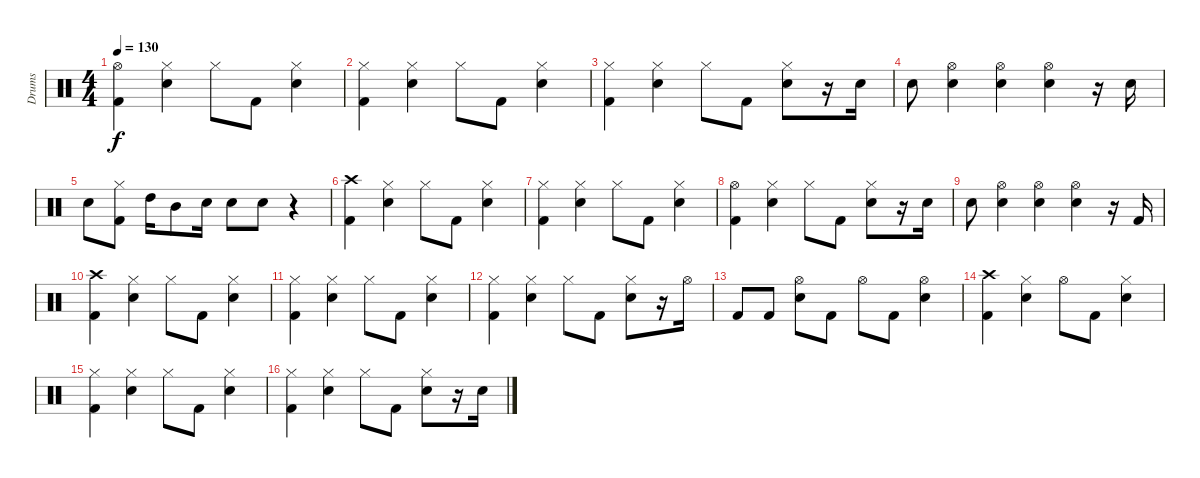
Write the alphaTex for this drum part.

\track ("Drums" "Drums") {instrument percussion}
\staff {score}
\articulation defaults
\ts (4 4)
\tempo 130
\clef neutral
\ks c
("Kick (hit) 2" "Hi-Hat (open)").4{dy f} ("Snare (hit) 2" "Hi-Hat (closed)").4 "Hi-Hat (closed)".8 "Kick (hit) 2".8 ("Snare (hit) 2" "Hi-Hat (closed)").4 |
("Kick (hit) 2" "Hi-Hat (closed)").4 ("Snare (hit) 2" "Hi-Hat (closed)").4 "Hi-Hat (closed)".8 "Kick (hit) 2".8 ("Snare (hit) 2" "Hi-Hat (closed)").4 |
("Kick (hit) 2" "Hi-Hat (closed)").4 ("Snare (hit) 2" "Hi-Hat (closed)").4 "Hi-Hat (closed)".8 "Kick (hit) 2".8 ("Snare (hit) 2" "Hi-Hat (closed)").8 r.16 "Snare (hit) 2".16 |
"Snare (hit) 2".8 ("Snare (hit) 2" "Hi-Hat (open)").4 ("Snare (hit) 2" "Hi-Hat (open)").4 ("Snare (hit) 2" "Hi-Hat (open)").4 r.16 "Snare (hit) 2".16 |
"Snare (hit) 2".8 ("Kick (hit) 2" "Hi-Hat (closed)").8 "High Tom (hit)".16 "Mid Tom (hit)".8 "Snare (hit) 2".16 "Snare (hit) 2".8 "Snare (hit) 2".8 r.4 |
("Kick (hit) 2" "Crash high (hit)").4 ("Snare (hit) 2" "Hi-Hat (closed)").4 "Hi-Hat (closed)".8 "Kick (hit) 2".8 ("Snare (hit) 2" "Hi-Hat (closed)").4 |
("Kick (hit) 2" "Hi-Hat (closed)").4 ("Snare (hit) 2" "Hi-Hat (closed)").4 "Hi-Hat (closed)".8 "Kick (hit) 2".8 ("Snare (hit) 2" "Hi-Hat (closed)").4 |
("Kick (hit) 2" "Hi-Hat (open)").4 ("Snare (hit) 2" "Hi-Hat (closed)").4 "Hi-Hat (closed)".8 "Kick (hit) 2".8 ("Snare (hit) 2" "Hi-Hat (closed)").8 r.16 "Snare (hit) 2".16 |
"Snare (hit) 2".8 ("Snare (hit) 2" "Hi-Hat (open)").4 ("Snare (hit) 2" "Hi-Hat (open)").4 ("Snare (hit) 2" "Hi-Hat (open)").4 r.16 "Kick (hit) 2".16 |
("Kick (hit) 2" "Crash high (hit)").4 ("Snare (hit) 2" "Hi-Hat (closed)").4 "Hi-Hat (closed)".8 "Kick (hit) 2".8 ("Snare (hit) 2" "Hi-Hat (closed)").4 |
("Kick (hit) 2" "Hi-Hat (closed)").4 ("Snare (hit) 2" "Hi-Hat (closed)").4 "Hi-Hat (closed)".8 "Kick (hit) 2".8 ("Snare (hit) 2" "Hi-Hat (closed)").4 |
("Kick (hit) 2" "Hi-Hat (closed)").4 ("Snare (hit) 2" "Hi-Hat (closed)").4 "Hi-Hat (closed)".8 "Kick (hit) 2".8 ("Snare (hit) 2" "Hi-Hat (closed)").8 r.16 "Hi-Hat (open)".16 |
"Kick (hit) 2".8 "Kick (hit) 2".8 ("Snare (hit) 2" "Hi-Hat (open)").8 "Kick (hit) 2".8 "Hi-Hat (open)".8 "Kick (hit) 2".8 ("Snare (hit) 2" "Hi-Hat (open)").4 |
("Kick (hit) 2" "Crash high (hit)").4 ("Snare (hit) 2" "Hi-Hat (closed)").4 "Hi-Hat (open)".8 "Kick (hit) 2".8 ("Snare (hit) 2" "Hi-Hat (closed)").4 |
("Kick (hit) 2" "Hi-Hat (closed)").4 ("Snare (hit) 2" "Hi-Hat (closed)").4 "Hi-Hat (closed)".8 "Kick (hit) 2".8 ("Snare (hit) 2" "Hi-Hat (closed)").4 |
("Kick (hit) 2" "Hi-Hat (closed)").4 ("Snare (hit) 2" "Hi-Hat (closed)").4 "Hi-Hat (closed)".8 "Kick (hit) 2".8 ("Snare (hit) 2" "Hi-Hat (closed)").8 r.16 "Snare (hit) 2".16
